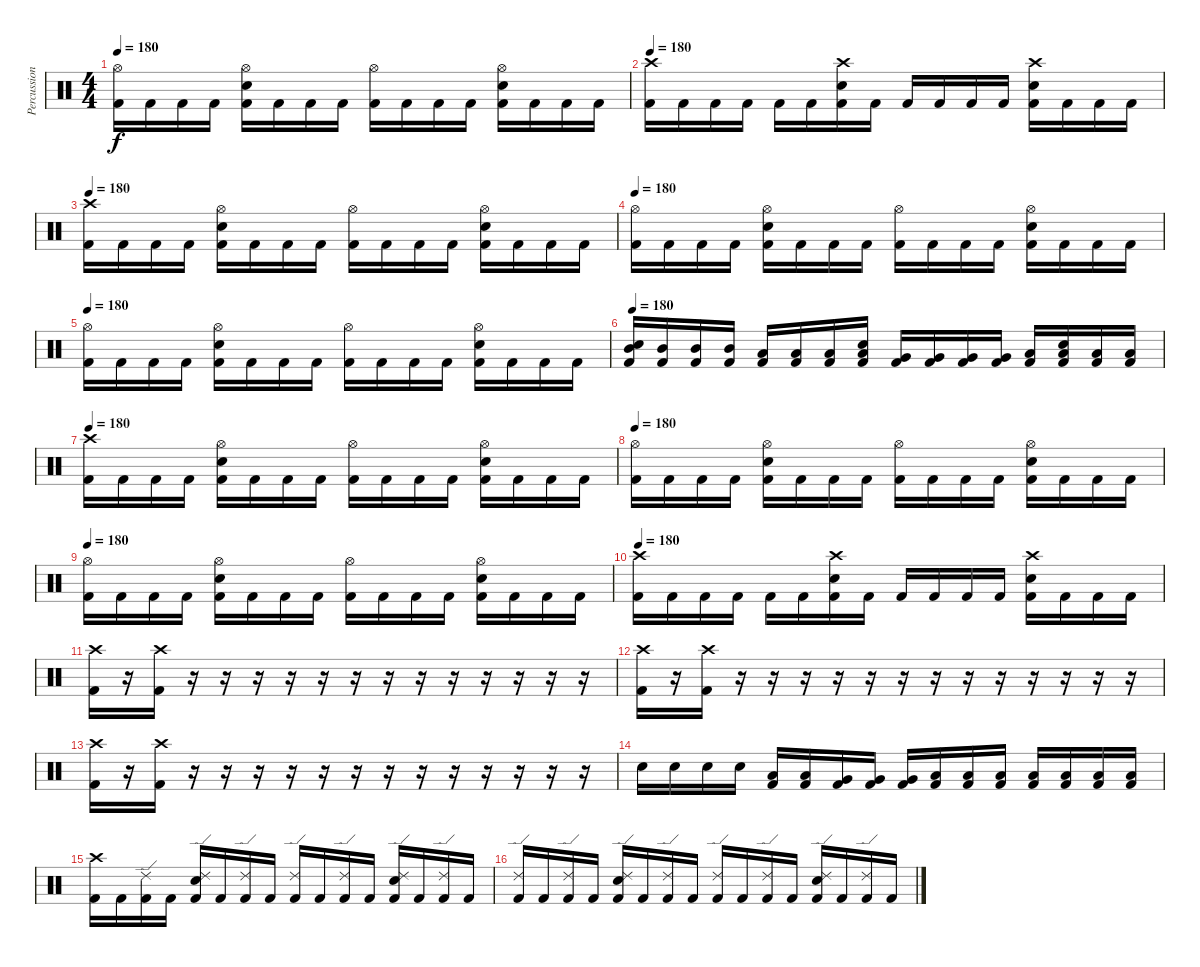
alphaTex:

\track ("Percussion" "Percussion") {instrument percussion}
\staff {score}
\articulation defaults
\ts (4 4)
\tempo 180
\clef neutral
\ks c
("Hi-Hat (open)" "Kick (hit) 2").16{dy f} "Kick (hit) 2".16 "Kick (hit) 2".16 "Kick (hit) 2".16 ("Hi-Hat (open)" "Snare (hit) 2" "Kick (hit) 2").16 "Kick (hit) 2".16 "Kick (hit) 2".16 "Kick (hit) 2".16 ("Hi-Hat (open)" "Kick (hit) 2").16 "Kick (hit) 2".16 "Kick (hit) 2".16 "Kick (hit) 2".16 ("Hi-Hat (open)" "Snare (hit) 2" "Kick (hit) 2").16 "Kick (hit) 2".16 "Kick (hit) 2".16 "Kick (hit) 2".16 |
\tempo 180
("Crash high (hit)" "Kick (hit) 2").16 "Kick (hit) 2".16 "Kick (hit) 2".16 "Kick (hit) 2".16 "Kick (hit) 2".16 "Kick (hit) 2".16 ("Crash high (hit)" "Snare (hit) 2" "Kick (hit) 2").16 "Kick (hit) 2".16 "Kick (hit) 2".16 "Kick (hit) 2".16 "Kick (hit) 2".16 "Kick (hit) 2".16 ("Crash high (hit)" "Snare (hit) 2" "Kick (hit) 2").16 "Kick (hit) 2".16 "Kick (hit) 2".16 "Kick (hit) 2".16 |
\tempo 180
("Crash high (hit)" "Kick (hit) 2").16 "Kick (hit) 2".16 "Kick (hit) 2".16 "Kick (hit) 2".16 ("Hi-Hat (open)" "Snare (hit) 2" "Kick (hit) 2").16 "Kick (hit) 2".16 "Kick (hit) 2".16 "Kick (hit) 2".16 ("Hi-Hat (open)" "Kick (hit) 2").16 "Kick (hit) 2".16 "Kick (hit) 2".16 "Kick (hit) 2".16 ("Hi-Hat (open)" "Snare (hit) 2" "Kick (hit) 2").16 "Kick (hit) 2".16 "Kick (hit) 2".16 "Kick (hit) 2".16 |
\tempo 180
("Hi-Hat (open)" "Kick (hit) 2").16 "Kick (hit) 2".16 "Kick (hit) 2".16 "Kick (hit) 2".16 ("Hi-Hat (open)" "Snare (hit) 2" "Kick (hit) 2").16 "Kick (hit) 2".16 "Kick (hit) 2".16 "Kick (hit) 2".16 ("Hi-Hat (open)" "Kick (hit) 2").16 "Kick (hit) 2".16 "Kick (hit) 2".16 "Kick (hit) 2".16 ("Hi-Hat (open)" "Snare (hit) 2" "Kick (hit) 2").16 "Kick (hit) 2".16 "Kick (hit) 2".16 "Kick (hit) 2".16 |
\tempo 180
("Hi-Hat (open)" "Kick (hit) 2").16 "Kick (hit) 2".16 "Kick (hit) 2".16 "Kick (hit) 2".16 ("Hi-Hat (open)" "Snare (hit) 2" "Kick (hit) 2").16 "Kick (hit) 2".16 "Kick (hit) 2".16 "Kick (hit) 2".16 ("Hi-Hat (open)" "Kick (hit) 2").16 "Kick (hit) 2".16 "Kick (hit) 2".16 "Kick (hit) 2".16 ("Hi-Hat (open)" "Snare (hit) 2" "Kick (hit) 2").16 "Kick (hit) 2".16 "Kick (hit) 2".16 "Kick (hit) 2".16 |
\tempo 180
("Mid Tom (hit)" "Snare (hit) 2" "Kick (hit) 2").16 ("Mid Tom (hit)" "Kick (hit) 2").16 ("Mid Tom (hit)" "Kick (hit) 2").16 ("Mid Tom (hit)" "Kick (hit) 2").16 ("Low Tom (hit)" "Kick (hit) 2").16 ("Low Tom (hit)" "Kick (hit) 2").16 ("Low Tom (hit)" "Kick (hit) 2").16 ("Low Tom (hit)" "Snare (hit) 2" "Kick (hit) 2").16 ("Very Low Tom (hit)" "Kick (hit) 2").16 ("Very Low Tom (hit)" "Kick (hit) 2").16 ("Very Low Tom (hit)" "Kick (hit) 2").16 ("Very Low Tom (hit)" "Kick (hit) 2").16 ("Low Floor Tom (hit)" "Kick (hit) 2").16 ("Low Floor Tom (hit)" "Snare (hit) 2" "Kick (hit) 2").16 ("Low Floor Tom (hit)" "Kick (hit) 2").16 ("Low Floor Tom (hit)" "Kick (hit) 2").16 |
\tempo 180
("Crash high (hit)" "Kick (hit) 2").16 "Kick (hit) 2".16 "Kick (hit) 2".16 "Kick (hit) 2".16 ("Hi-Hat (open)" "Snare (hit) 2" "Kick (hit) 2").16 "Kick (hit) 2".16 "Kick (hit) 2".16 "Kick (hit) 2".16 ("Hi-Hat (open)" "Kick (hit) 2").16 "Kick (hit) 2".16 "Kick (hit) 2".16 "Kick (hit) 2".16 ("Hi-Hat (open)" "Snare (hit) 2" "Kick (hit) 2").16 "Kick (hit) 2".16 "Kick (hit) 2".16 "Kick (hit) 2".16 |
\tempo 180
("Hi-Hat (open)" "Kick (hit) 2").16 "Kick (hit) 2".16 "Kick (hit) 2".16 "Kick (hit) 2".16 ("Hi-Hat (open)" "Snare (hit) 2" "Kick (hit) 2").16 "Kick (hit) 2".16 "Kick (hit) 2".16 "Kick (hit) 2".16 ("Hi-Hat (open)" "Kick (hit) 2").16 "Kick (hit) 2".16 "Kick (hit) 2".16 "Kick (hit) 2".16 ("Hi-Hat (open)" "Snare (hit) 2" "Kick (hit) 2").16 "Kick (hit) 2".16 "Kick (hit) 2".16 "Kick (hit) 2".16 |
\tempo 180
("Hi-Hat (open)" "Kick (hit) 2").16 "Kick (hit) 2".16 "Kick (hit) 2".16 "Kick (hit) 2".16 ("Hi-Hat (open)" "Snare (hit) 2" "Kick (hit) 2").16 "Kick (hit) 2".16 "Kick (hit) 2".16 "Kick (hit) 2".16 ("Hi-Hat (open)" "Kick (hit) 2").16 "Kick (hit) 2".16 "Kick (hit) 2".16 "Kick (hit) 2".16 ("Hi-Hat (open)" "Snare (hit) 2" "Kick (hit) 2").16 "Kick (hit) 2".16 "Kick (hit) 2".16 "Kick (hit) 2".16 |
\tempo 180
("Crash high (hit)" "Kick (hit) 2").16 "Kick (hit) 2".16 "Kick (hit) 2".16 "Kick (hit) 2".16 "Kick (hit) 2".16 "Kick (hit) 2".16 ("Crash high (hit)" "Snare (hit) 2" "Kick (hit) 2").16 "Kick (hit) 2".16 "Kick (hit) 2".16 "Kick (hit) 2".16 "Kick (hit) 2".16 "Kick (hit) 2".16 ("Crash high (hit)" "Snare (hit) 2" "Kick (hit) 2").16 "Kick (hit) 2".16 "Kick (hit) 2".16 "Kick (hit) 2".16 |
("Crash high (hit)" "Kick (hit) 2").16 r.16 ("Crash high (hit)" "Kick (hit) 2").16 r.16 r.16 r.16 r.16 r.16 r.16 r.16 r.16 r.16 r.16 r.16 r.16 r.16 |
("Crash high (hit)" "Kick (hit) 2").16 r.16 ("Crash high (hit)" "Kick (hit) 2").16 r.16 r.16 r.16 r.16 r.16 r.16 r.16 r.16 r.16 r.16 r.16 r.16 r.16 |
("Crash high (hit)" "Kick (hit) 2").16 r.16 ("Crash high (hit)" "Kick (hit) 2").16 r.16 r.16 r.16 r.16 r.16 r.16 r.16 r.16 r.16 r.16 r.16 r.16 r.16 |
"Snare (hit) 2".16 "Snare (hit) 2".16 "Snare (hit) 2".16 "Snare (hit) 2".16 ("Low Tom (hit)" "Kick (hit) 2").16 ("Low Tom (hit)" "Kick (hit) 2").16 ("Very Low Tom (hit)" "Kick (hit) 2").16 ("Very Low Tom (hit)" "Kick (hit) 2").16 ("Very Low Tom (hit)" "Kick (hit) 2").16 ("Low Floor Tom (hit)" "Kick (hit) 2").16 ("Low Floor Tom (hit)" "Kick (hit) 2").16 ("Low Floor Tom (hit)" "Kick (hit) 2").16 ("Low Floor Tom (hit)" "Kick (hit) 2").16 ("Low Floor Tom (hit)" "Kick (hit) 2").16 ("Low Floor Tom (hit)" "Kick (hit) 2").16 ("Low Floor Tom (hit)" "Kick (hit) 2").16 |
("Crash high (hit)" "Kick (hit) 2").16 "Kick (hit) 2".16 ("Ride (edge) 2" "Kick (hit) 2").16 "Kick (hit) 2".16 ("Ride (edge) 2" "Snare (hit) 2" "Kick (hit) 2").16 "Kick (hit) 2".16 ("Ride (edge) 2" "Kick (hit) 2").16 "Kick (hit) 2".16 ("Ride (edge) 2" "Kick (hit) 2").16 "Kick (hit) 2".16 ("Ride (edge) 2" "Kick (hit) 2").16 "Kick (hit) 2".16 ("Ride (edge) 2" "Snare (hit) 2" "Kick (hit) 2").16 "Kick (hit) 2".16 ("Ride (edge) 2" "Kick (hit) 2").16 "Kick (hit) 2".16 |
("Ride (edge) 2" "Kick (hit) 2").16 "Kick (hit) 2".16 ("Ride (edge) 2" "Kick (hit) 2").16 "Kick (hit) 2".16 ("Ride (edge) 2" "Snare (hit) 2" "Kick (hit) 2").16 "Kick (hit) 2".16 ("Ride (edge) 2" "Kick (hit) 2").16 "Kick (hit) 2".16 ("Ride (edge) 2" "Kick (hit) 2").16 "Kick (hit) 2".16 ("Ride (edge) 2" "Kick (hit) 2").16 "Kick (hit) 2".16 ("Ride (edge) 2" "Snare (hit) 2" "Kick (hit) 2").16 "Kick (hit) 2".16 ("Ride (edge) 2" "Kick (hit) 2").16 "Kick (hit) 2".16
